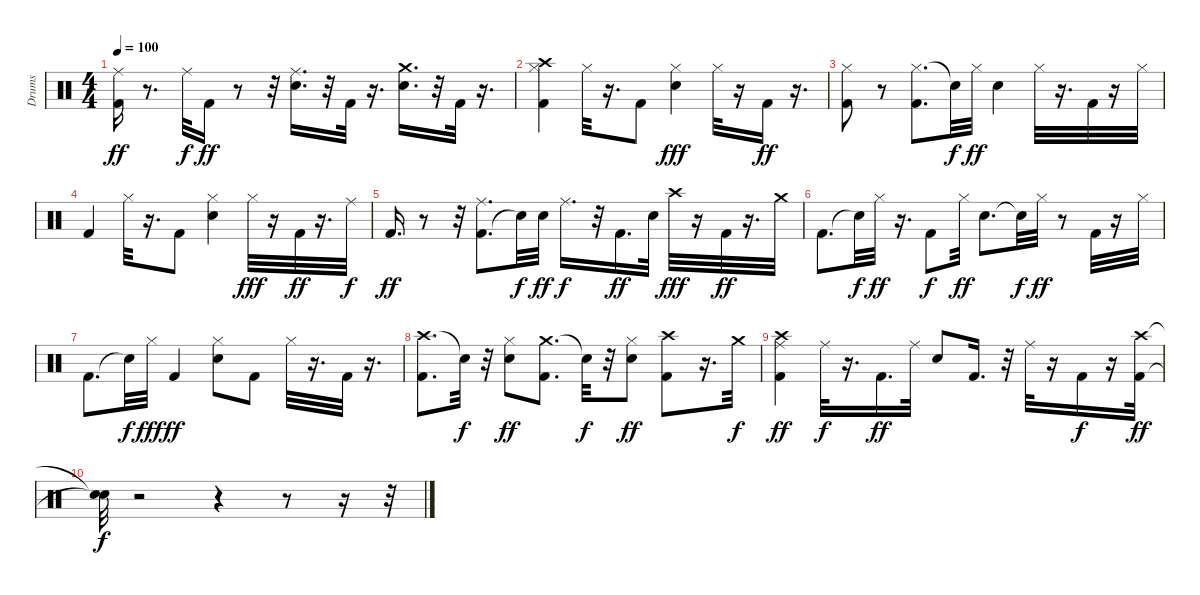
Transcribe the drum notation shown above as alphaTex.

\track ("Drums" "Drums") {instrument percussion}
\staff {score}
\articulation defaults
\ts (4 4)
\tempo 100
\clef neutral
\ks c
("Ride (middle)" "Kick (hit) 2").16{dy ff} r.8{d} "Ride (middle)".32{dy f} "Kick (hit) 2".16{dy ff} r.8 r.32 ("Electric Snare (hit)" "Ride (middle)").16{d} r.32 "Kick (hit) 2".32 r.16{d} ("Crash medium (hit)" "Electric Snare (hit)").16{d} r.32 "Kick (hit) 2".32 r.16{d} |
("Crash high (hit)" "Hi-Hat (closed)" "Kick (hit) 2").4 "Hi-Hat (closed)".32 r.16{d} "Kick (hit) 2".8 ("Electric Snare (hit)" "Hi-Hat (closed)").4{dy fff} "Hi-Hat (closed)".32 r.16 "Kick (hit) 2".16{dy ff} r.16{d} |
("Hi-Hat (closed)" "Kick (hit) 2").8 r.8 ("Hi-Hat (closed)" "Kick (hit) 2").8{d} "Snare (hit)"{t}.32{dy f} "Hi-Hat (closed)".32{dy ff} "Electric Snare (hit)".4 "Hi-Hat (closed)".32 r.16{d} "Kick (hit) 2".32 r.16 "Hi-Hat (closed)".32 |
"Kick (hit) 2".4 "Hi-Hat (closed)".32 r.16{d} "Kick (hit) 2".8 ("Hi-Hat (closed)" "Electric Snare (hit)").4 "Hi-Hat (closed)".32{dy fff} r.16 "Kick (hit) 2".32{dy ff} r.16{d} "Ride (middle)".32{dy f} |
"Kick (hit) 2".16{d dy ff} r.8 r.32 ("Kick (hit) 2" "Ride (middle)").8{d} "Snare (hit)"{t}.32{dy f} "Electric Snare (hit)".32{dy ff} "Ride (middle)".16{d dy f} r.32 "Kick (hit) 2".16{d dy ff} "Electric Snare (hit)".32 "Crash high (hit)".32{dy fff} r.16 "Kick (hit) 2".32{dy ff} r.16{d} "Crash medium (hit)".32 |
"Kick (hit) 2".8{d} "Snare (hit)"{t}.32{dy f} "Hi-Hat (closed)".32{dy ff} r.16{d} "Kick (hit) 2".8{dy f} "Hi-Hat (closed)".32{dy ff} "Electric Snare (hit)".8{d} "Snare (hit)"{t}.32{dy f} "Hi-Hat (closed)".32{dy ff} r.8 "Kick (hit) 2".32 r.16 "Hi-Hat (closed)".32 |
"Kick (hit) 2".8{d} "Snare (hit)"{t}.32{dy f} "Hi-Hat (closed)".32{dy fff} "Kick (hit) 2".4{dy ff} ("Hi-Hat (closed)" "Electric Snare (hit)").8 "Kick (hit) 2".8 "Hi-Hat (closed)".32 r.16{d} "Kick (hit) 2".32 r.16{d} |
("Crash high (hit)" "Kick (hit) 2").8{d} "Snare (hit)"{t}.32{dy f} r.32 ("Hi-Hat (closed)" "Electric Snare (hit)").8{dy ff} ("Crash medium (hit)" "Kick (hit) 2").8{d} "Snare (hit)"{t}.32{dy f} r.32 ("Hi-Hat (closed)" "Electric Snare (hit)").8{dy ff} ("Crash high (hit)" "Kick (hit) 2").8 r.16{d} "Crash medium (hit)".32{dy f} |
("Crash high (hit)" "Ride (middle)" "Kick (hit) 2").4{dy ff} "Ride (middle)".32{dy f} r.16{d} "Kick (hit) 2".16{d dy ff} "Ride (middle)".32 "Electric Snare (hit)".8 "Kick (hit) 2".16{d} r.32 "Ride (middle)".32 r.16 "Kick (hit) 2".16{dy f} r.16 ("Crash high (hit)" "Kick (hit) 2").32{dy ff} |
("Snare (hit)"{t} "Snare (hit)"{t}).32{dy f} r.2 r.4 r.8 r.16 r.32
